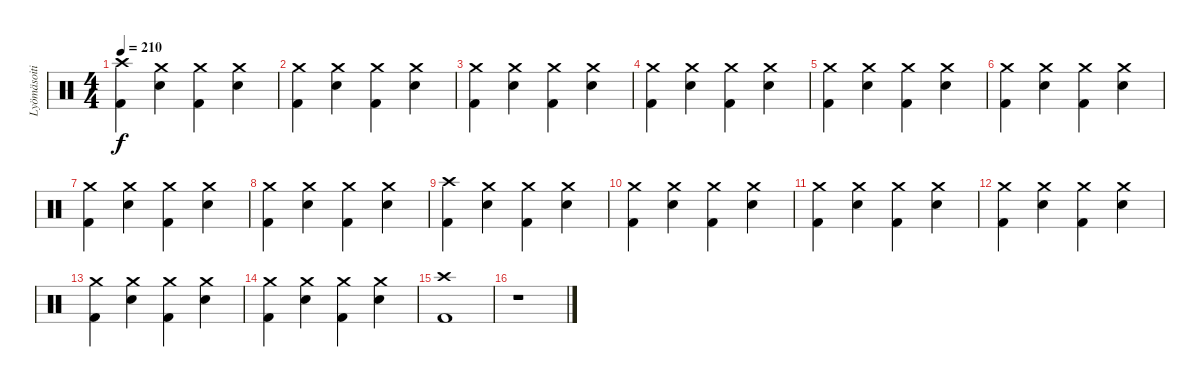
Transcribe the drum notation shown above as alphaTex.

\track ("Lyömäsoitin" "Lyömäsoiti") {instrument percussion}
\staff {score}
\articulation defaults
\ts (4 4)
\tempo 210
\clef neutral
\ks c
("Crash high (hit)" "Kick (hit) 2").4{dy f} ("Crash medium (hit)" "Electric Snare (hit)").4 ("Crash medium (hit)" "Kick (hit) 2").4 ("Crash medium (hit)" "Electric Snare (hit)").4 |
("Crash medium (hit)" "Kick (hit) 2").4 ("Crash medium (hit)" "Electric Snare (hit)").4 ("Crash medium (hit)" "Kick (hit) 2").4 ("Crash medium (hit)" "Electric Snare (hit)").4 |
("Crash medium (hit)" "Kick (hit) 2").4 ("Crash medium (hit)" "Electric Snare (hit)").4 ("Crash medium (hit)" "Kick (hit) 2").4 ("Crash medium (hit)" "Electric Snare (hit)").4 |
("Crash medium (hit)" "Kick (hit) 2").4 ("Crash medium (hit)" "Electric Snare (hit)").4 ("Crash medium (hit)" "Kick (hit) 2").4 ("Crash medium (hit)" "Electric Snare (hit)").4 |
("Crash medium (hit)" "Kick (hit) 2").4 ("Crash medium (hit)" "Electric Snare (hit)").4 ("Crash medium (hit)" "Kick (hit) 2").4 ("Crash medium (hit)" "Electric Snare (hit)").4 |
("Crash medium (hit)" "Kick (hit) 2").4 ("Crash medium (hit)" "Electric Snare (hit)").4 ("Crash medium (hit)" "Kick (hit) 2").4 ("Crash medium (hit)" "Electric Snare (hit)").4 |
("Crash medium (hit)" "Kick (hit) 2").4 ("Crash medium (hit)" "Electric Snare (hit)").4 ("Crash medium (hit)" "Kick (hit) 2").4 ("Crash medium (hit)" "Electric Snare (hit)").4 |
("Crash medium (hit)" "Kick (hit) 2").4 ("Crash medium (hit)" "Electric Snare (hit)").4 ("Crash medium (hit)" "Kick (hit) 2").4 ("Crash medium (hit)" "Electric Snare (hit)").4 |
("Crash high (hit)" "Kick (hit) 2").4 ("Crash medium (hit)" "Electric Snare (hit)").4 ("Crash medium (hit)" "Kick (hit) 2").4 ("Crash medium (hit)" "Electric Snare (hit)").4 |
("Crash medium (hit)" "Kick (hit) 2").4 ("Crash medium (hit)" "Electric Snare (hit)").4 ("Crash medium (hit)" "Kick (hit) 2").4 ("Crash medium (hit)" "Electric Snare (hit)").4 |
("Crash medium (hit)" "Kick (hit) 2").4 ("Crash medium (hit)" "Electric Snare (hit)").4 ("Crash medium (hit)" "Kick (hit) 2").4 ("Crash medium (hit)" "Electric Snare (hit)").4 |
("Crash medium (hit)" "Kick (hit) 2").4 ("Crash medium (hit)" "Electric Snare (hit)").4 ("Crash medium (hit)" "Kick (hit) 2").4 ("Crash medium (hit)" "Electric Snare (hit)").4 |
("Crash medium (hit)" "Kick (hit) 2").4 ("Crash medium (hit)" "Electric Snare (hit)").4 ("Crash medium (hit)" "Kick (hit) 2").4 ("Crash medium (hit)" "Electric Snare (hit)").4 |
("Crash medium (hit)" "Kick (hit) 2").4 ("Crash medium (hit)" "Electric Snare (hit)").4 ("Crash medium (hit)" "Kick (hit) 2").4 ("Crash medium (hit)" "Electric Snare (hit)").4 |
("Crash high (hit)" "Kick (hit) 2").1 |
r.1
